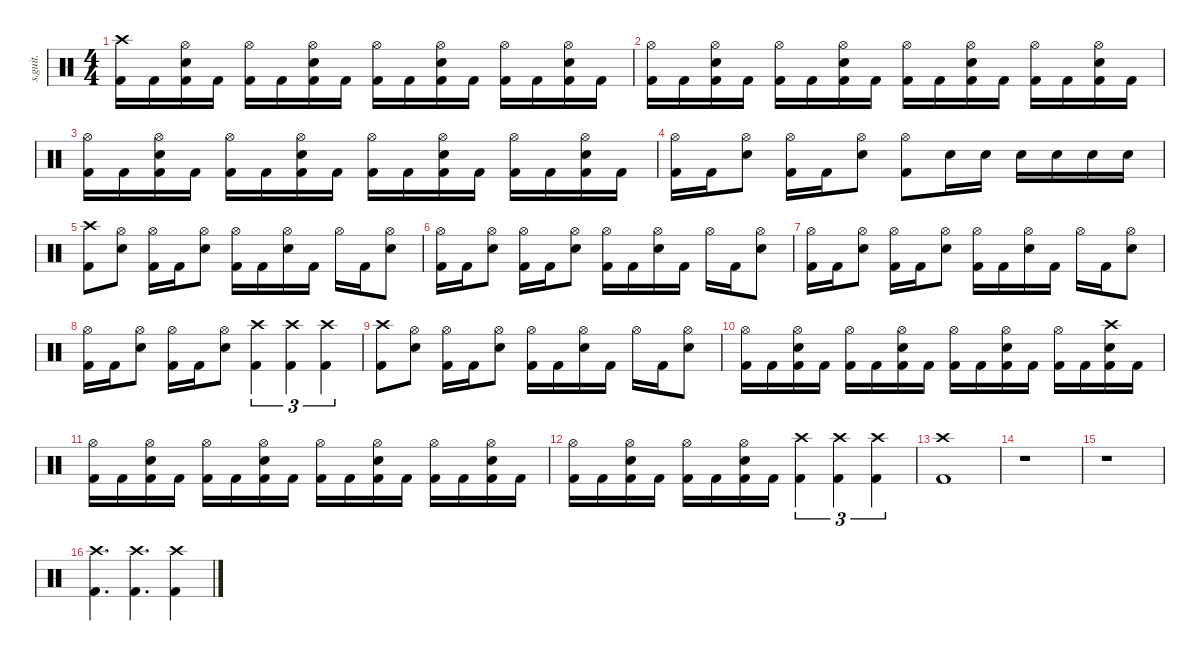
\defaultSystemsLayout 4
\hideDynamics
\bracketExtendMode nobrackets
\track ("" "s.guit.") {instrument percussion}
\staff {score}
\articulation defaults
\ts (4 4)
\tempo (153 hide)
\clef neutral
\ks c
("Crash high (hit)" "Kick (hit) 2").16{dy f} "Kick (hit) 2".16 ("Hi-Hat (open)" "Snare (hit) 2" "Kick (hit) 2").16 "Kick (hit) 2".16 ("Hi-Hat (open)" "Kick (hit) 2").16 "Kick (hit) 2".16 ("Hi-Hat (open)" "Snare (hit) 2" "Kick (hit) 2").16 "Kick (hit) 2".16 ("Hi-Hat (open)" "Kick (hit) 2").16 "Kick (hit) 2".16 ("Hi-Hat (open)" "Snare (hit) 2" "Kick (hit) 2").16 "Kick (hit) 2".16 ("Hi-Hat (open)" "Kick (hit) 2").16 "Kick (hit) 2".16 ("Hi-Hat (open)" "Snare (hit) 2" "Kick (hit) 2").16 "Kick (hit) 2".16 |
("Hi-Hat (open)" "Kick (hit) 2").16 "Kick (hit) 2".16 ("Hi-Hat (open)" "Snare (hit) 2" "Kick (hit) 2").16 "Kick (hit) 2".16 ("Hi-Hat (open)" "Kick (hit) 2").16 "Kick (hit) 2".16 ("Hi-Hat (open)" "Snare (hit) 2" "Kick (hit) 2").16 "Kick (hit) 2".16 ("Hi-Hat (open)" "Kick (hit) 2").16 "Kick (hit) 2".16 ("Hi-Hat (open)" "Snare (hit) 2" "Kick (hit) 2").16 "Kick (hit) 2".16 ("Hi-Hat (open)" "Kick (hit) 2").16 "Kick (hit) 2".16 ("Hi-Hat (open)" "Snare (hit) 2" "Kick (hit) 2").16 "Kick (hit) 2".16 |
("Hi-Hat (open)" "Kick (hit) 2").16 "Kick (hit) 2".16 ("Hi-Hat (open)" "Snare (hit) 2" "Kick (hit) 2").16 "Kick (hit) 2".16 ("Hi-Hat (open)" "Kick (hit) 2").16 "Kick (hit) 2".16 ("Hi-Hat (open)" "Snare (hit) 2" "Kick (hit) 2").16 "Kick (hit) 2".16 ("Hi-Hat (open)" "Kick (hit) 2").16 "Kick (hit) 2".16 ("Hi-Hat (open)" "Snare (hit) 2" "Kick (hit) 2").16 "Kick (hit) 2".16 ("Hi-Hat (open)" "Kick (hit) 2").16 "Kick (hit) 2".16 ("Hi-Hat (open)" "Snare (hit) 2" "Kick (hit) 2").16 "Kick (hit) 2".16 |
("Hi-Hat (open)" "Kick (hit) 2").16 "Kick (hit) 2".16 ("Hi-Hat (open)" "Snare (hit) 2").8 ("Hi-Hat (open)" "Kick (hit) 2").16 "Kick (hit) 2".16 ("Hi-Hat (open)" "Snare (hit) 2").8 ("Hi-Hat (open)" "Kick (hit) 2").8 "Snare (hit) 2".16 "Snare (hit) 2".16 "Snare (hit) 2".16 "Snare (hit) 2".16 "Snare (hit) 2".16 "Snare (hit) 2".16 |
("Crash high (hit)" "Kick (hit) 2").8 ("Hi-Hat (open)" "Snare (hit) 2").8 ("Hi-Hat (open)" "Kick (hit) 2").16 "Kick (hit) 2".16 ("Hi-Hat (open)" "Snare (hit) 2").8 ("Hi-Hat (open)" "Kick (hit) 2").16 "Kick (hit) 2".16 ("Hi-Hat (open)" "Snare (hit) 2").16 "Kick (hit) 2".16 "Hi-Hat (open)".16 "Kick (hit) 2".16 ("Hi-Hat (open)" "Snare (hit) 2").8 |
("Hi-Hat (open)" "Kick (hit) 2").16 "Kick (hit) 2".16 ("Hi-Hat (open)" "Snare (hit) 2").8 ("Hi-Hat (open)" "Kick (hit) 2").16 "Kick (hit) 2".16 ("Hi-Hat (open)" "Snare (hit) 2").8 ("Hi-Hat (open)" "Kick (hit) 2").16 "Kick (hit) 2".16 ("Hi-Hat (open)" "Snare (hit) 2").16 "Kick (hit) 2".16 "Hi-Hat (open)".16 "Kick (hit) 2".16 ("Hi-Hat (open)" "Snare (hit) 2").8 |
("Hi-Hat (open)" "Kick (hit) 2").16 "Kick (hit) 2".16 ("Hi-Hat (open)" "Snare (hit) 2").8 ("Hi-Hat (open)" "Kick (hit) 2").16 "Kick (hit) 2".16 ("Hi-Hat (open)" "Snare (hit) 2").8 ("Hi-Hat (open)" "Kick (hit) 2").16 "Kick (hit) 2".16 ("Hi-Hat (open)" "Snare (hit) 2").16 "Kick (hit) 2".16 "Hi-Hat (open)".16 "Kick (hit) 2".16 ("Hi-Hat (open)" "Snare (hit) 2").8 |
("Hi-Hat (open)" "Kick (hit) 2").16 "Kick (hit) 2".16 ("Hi-Hat (open)" "Snare (hit) 2").8 ("Hi-Hat (open)" "Kick (hit) 2").16 "Kick (hit) 2".16 ("Hi-Hat (open)" "Snare (hit) 2").8 ("Crash high (hit)" "Kick (hit) 2").4{tu (3 2)} ("Crash high (hit)" "Kick (hit) 2").4{tu (3 2)} ("Crash high (hit)" "Kick (hit) 2").4{tu (3 2)} |
("Crash high (hit)" "Kick (hit) 2").8 ("Hi-Hat (open)" "Snare (hit) 2").8 ("Hi-Hat (open)" "Kick (hit) 2").16 "Kick (hit) 2".16 ("Hi-Hat (open)" "Snare (hit) 2").8 ("Hi-Hat (open)" "Kick (hit) 2").16 "Kick (hit) 2".16 ("Hi-Hat (open)" "Snare (hit) 2").16 "Kick (hit) 2".16 "Hi-Hat (open)".16 "Kick (hit) 2".16 ("Hi-Hat (open)" "Snare (hit) 2").8 |
("Hi-Hat (open)" "Kick (hit) 2").16 "Kick (hit) 2".16 ("Hi-Hat (open)" "Snare (hit) 2" "Kick (hit) 2").16 "Kick (hit) 2".16 ("Hi-Hat (open)" "Kick (hit) 2").16 "Kick (hit) 2".16 ("Hi-Hat (open)" "Snare (hit) 2" "Kick (hit) 2").16 "Kick (hit) 2".16 ("Hi-Hat (open)" "Kick (hit) 2").16 "Kick (hit) 2".16 ("Hi-Hat (open)" "Snare (hit) 2" "Kick (hit) 2").16 "Kick (hit) 2".16 ("Hi-Hat (open)" "Kick (hit) 2").16 "Kick (hit) 2".16 ("Crash high (hit)" "Snare (hit) 2" "Kick (hit) 2").16 "Kick (hit) 2".16 |
("Hi-Hat (open)" "Kick (hit) 2").16 "Kick (hit) 2".16 ("Hi-Hat (open)" "Snare (hit) 2" "Kick (hit) 2").16 "Kick (hit) 2".16 ("Hi-Hat (open)" "Kick (hit) 2").16 "Kick (hit) 2".16 ("Hi-Hat (open)" "Snare (hit) 2" "Kick (hit) 2").16 "Kick (hit) 2".16 ("Hi-Hat (open)" "Kick (hit) 2").16 "Kick (hit) 2".16 ("Hi-Hat (open)" "Snare (hit) 2" "Kick (hit) 2").16 "Kick (hit) 2".16 ("Hi-Hat (open)" "Kick (hit) 2").16 "Kick (hit) 2".16 ("Hi-Hat (open)" "Snare (hit) 2" "Kick (hit) 2").16 "Kick (hit) 2".16 |
("Hi-Hat (open)" "Kick (hit) 2").16 "Kick (hit) 2".16 ("Hi-Hat (open)" "Snare (hit) 2" "Kick (hit) 2").16 "Kick (hit) 2".16 ("Hi-Hat (open)" "Kick (hit) 2").16 "Kick (hit) 2".16 ("Hi-Hat (open)" "Snare (hit) 2" "Kick (hit) 2").16 "Kick (hit) 2".16 ("Crash high (hit)" "Kick (hit) 2").4{tu (3 2)} ("Crash high (hit)" "Kick (hit) 2").4{tu (3 2)} ("Crash high (hit)" "Kick (hit) 2").4{tu (3 2)} |
("Crash high (hit)" "Kick (hit) 2").1 |
r.1 |
r.1 |
("Crash high (hit)" "Kick (hit) 2").4{d} ("Crash high (hit)" "Kick (hit) 2").4{d} ("Crash high (hit)" "Kick (hit) 2").4
